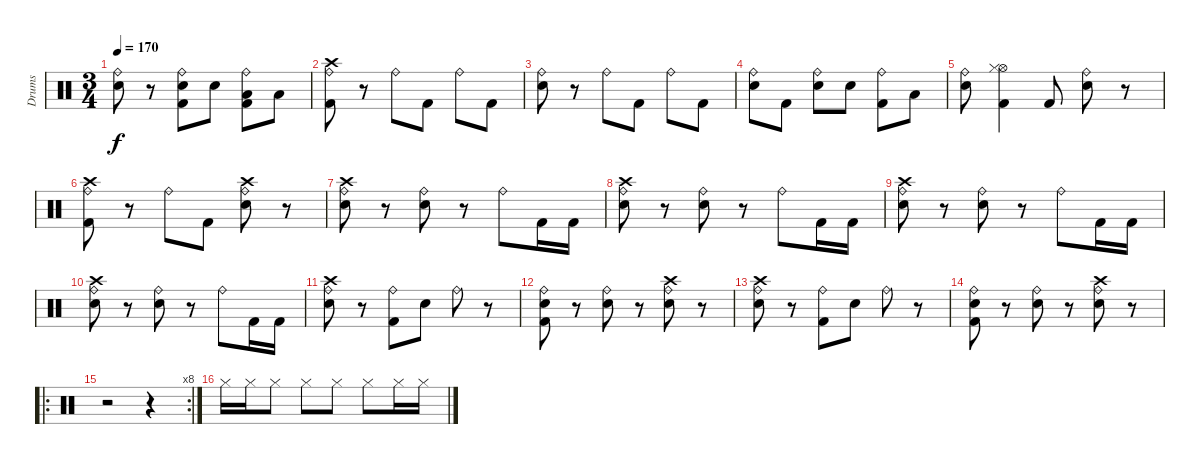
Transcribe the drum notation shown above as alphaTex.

\track ("Drums" "Drums") {instrument percussion}
\staff {score}
\articulation defaults
\ts (3 4)
\tempo 170
\clef neutral
\ks c
("Ride (bell)" "Electric Snare (hit)").8{dy f} r.8 ("Ride (bell)" "Electric Snare (hit)" "Kick (hit) 2").8 "Electric Snare (hit)".8 ("Ride (bell)" "Low Tom (hit)" "Kick (hit) 2").8 "Low Tom (hit)".8 |
("Ride (bell)" "Crash high (hit)" "Kick (hit) 2").8 r.8 "Ride (bell)".8 "Kick (hit) 2".8 "Ride (bell)".8 "Kick (hit) 2".8 |
("Ride (bell)" "Electric Snare (hit)").8 r.8 "Ride (bell)".8 "Kick (hit) 2".8 "Ride (bell)".8 "Kick (hit) 2".8 |
("Ride (bell)" "Electric Snare (hit)").8 "Kick (hit) 2".8 ("Ride (bell)" "Electric Snare (hit)").8 "Electric Snare (hit)".8 ("Ride (bell)" "Kick (hit) 2").8 "Low Tom (hit)".8 |
("Ride (bell)" "Electric Snare (hit)").8 ("Hi-Hat (open)" "Hi-Hat (closed)" "Kick (hit) 2").4 "Kick (hit) 2".8 ("Ride (bell)" "Electric Snare (hit)").8 r.8 |
("Ride (bell)" "Crash high (hit)" "Kick (hit) 2").8 r.8 "Ride (bell)".8 "Kick (hit) 2".8 ("Ride (bell)" "Electric Snare (hit)" "Crash high (hit)").8 r.8 |
("Ride (bell)" "Electric Snare (hit)" "Crash high (hit)").8 r.8 ("Ride (bell)" "Electric Snare (hit)").8 r.8 "Ride (bell)".8 "Kick (hit) 2".16 "Kick (hit) 2".16 |
("Ride (bell)" "Electric Snare (hit)" "Crash high (hit)").8 r.8 ("Ride (bell)" "Electric Snare (hit)").8 r.8 "Ride (bell)".8 "Kick (hit) 2".16 "Kick (hit) 2".16 |
("Ride (bell)" "Electric Snare (hit)" "Crash high (hit)").8 r.8 ("Ride (bell)" "Electric Snare (hit)").8 r.8 "Ride (bell)".8 "Kick (hit) 2".16 "Kick (hit) 2".16 |
("Ride (bell)" "Electric Snare (hit)" "Crash high (hit)").8 r.8 ("Ride (bell)" "Electric Snare (hit)").8 r.8 "Ride (bell)".8 "Kick (hit) 2".16 "Kick (hit) 2".16 |
("Ride (bell)" "Crash high (hit)" "Electric Snare (hit)").8 r.8 ("Ride (bell)" "Kick (hit) 2").8 "Electric Snare (hit)".8 "Ride (bell)".8 r.8 |
("Ride (bell)" "Electric Snare (hit)" "Kick (hit) 2").8 r.8 ("Ride (bell)" "Electric Snare (hit)").8 r.8 ("Ride (bell)" "Electric Snare (hit)" "Crash high (hit)").8 r.8 |
("Ride (bell)" "Crash high (hit)" "Electric Snare (hit)").8 r.8 ("Ride (bell)" "Kick (hit) 2").8 "Electric Snare (hit)".8 "Ride (bell)".8 r.8 |
("Ride (bell)" "Electric Snare (hit)" "Kick (hit) 2").8 r.8 ("Ride (bell)" "Electric Snare (hit)").8 r.8 ("Ride (bell)" "Electric Snare (hit)" "Crash high (hit)").8 r.8 |
\ro
\rc 8
r.2 r.4 |
"Hi-Hat (closed)".16 "Hi-Hat (closed)".16 "Hi-Hat (closed)".8 "Hi-Hat (closed)".8 "Hi-Hat (closed)".8 "Hi-Hat (closed)".8 "Hi-Hat (closed)".16 "Hi-Hat (closed)".16
